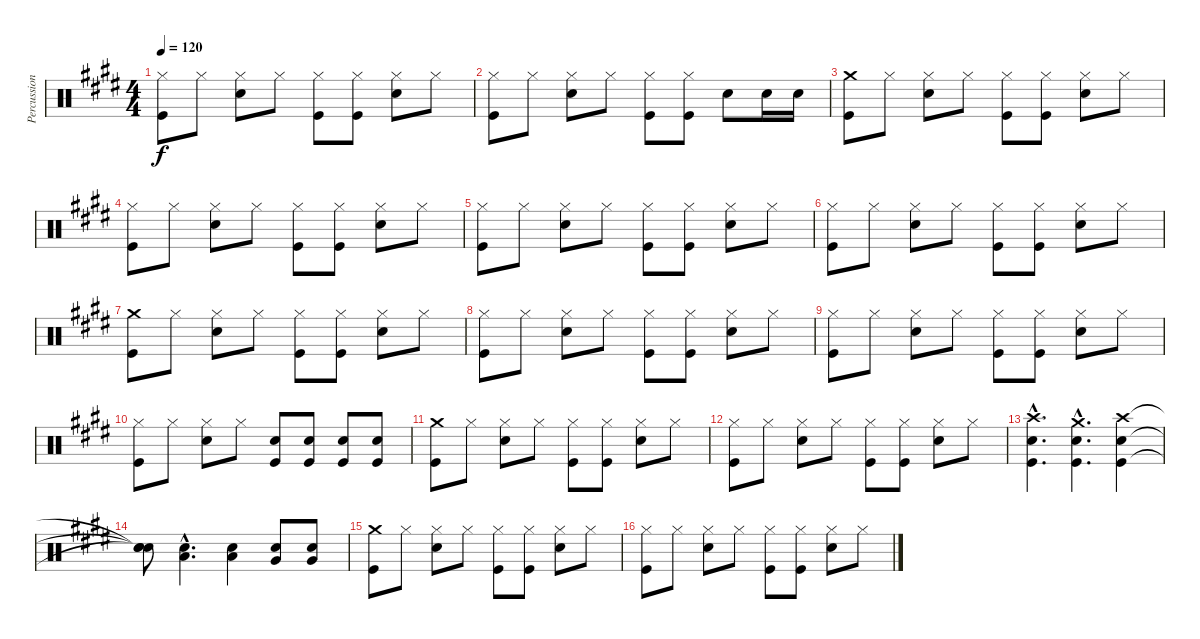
\track ("Percussion" "Percussion") {instrument percussion}
\staff {score}
\articulation defaults
\ts (4 4)
\tempo 120
\clef neutral
\ks e
("Hi-Hat (closed)" "Kick (hit)").8{dy f} "Hi-Hat (closed)".8 ("Hi-Hat (closed)" "Snare (hit) 2").8 "Hi-Hat (closed)".8 ("Hi-Hat (closed)" "Kick (hit)").8 ("Hi-Hat (closed)" "Kick (hit)").8 ("Hi-Hat (closed)" "Snare (hit) 2").8 "Hi-Hat (closed)".8 |
("Hi-Hat (closed)" "Kick (hit)").8 "Hi-Hat (closed)".8 ("Hi-Hat (closed)" "Snare (hit) 2").8 "Hi-Hat (closed)".8 ("Hi-Hat (closed)" "Kick (hit)").8 ("Hi-Hat (closed)" "Kick (hit)").8 "Snare (hit) 2".8 "Snare (hit) 2".16 "Snare (hit) 2".16 |
("Crash medium (hit)" "Kick (hit)").8 "Hi-Hat (closed)".8 ("Hi-Hat (closed)" "Snare (hit) 2").8 "Hi-Hat (closed)".8 ("Hi-Hat (closed)" "Kick (hit)").8 ("Hi-Hat (closed)" "Kick (hit)").8 ("Hi-Hat (closed)" "Snare (hit) 2").8 "Hi-Hat (closed)".8 |
("Hi-Hat (closed)" "Kick (hit)").8 "Hi-Hat (closed)".8 ("Hi-Hat (closed)" "Snare (hit) 2").8 "Hi-Hat (closed)".8 ("Hi-Hat (closed)" "Kick (hit)").8 ("Hi-Hat (closed)" "Kick (hit)").8 ("Hi-Hat (closed)" "Snare (hit) 2").8 "Hi-Hat (closed)".8 |
("Hi-Hat (closed)" "Kick (hit)").8 "Hi-Hat (closed)".8 ("Hi-Hat (closed)" "Snare (hit) 2").8 "Hi-Hat (closed)".8 ("Hi-Hat (closed)" "Kick (hit)").8 ("Hi-Hat (closed)" "Kick (hit)").8 ("Hi-Hat (closed)" "Snare (hit) 2").8 "Hi-Hat (closed)".8 |
("Hi-Hat (closed)" "Kick (hit)").8 "Hi-Hat (closed)".8 ("Hi-Hat (closed)" "Snare (hit) 2").8 "Hi-Hat (closed)".8 ("Hi-Hat (closed)" "Kick (hit)").8 ("Hi-Hat (closed)" "Kick (hit)").8 ("Hi-Hat (closed)" "Snare (hit) 2").8 "Hi-Hat (closed)".8 |
("Crash medium (hit)" "Kick (hit)").8 "Hi-Hat (closed)".8 ("Hi-Hat (closed)" "Snare (hit) 2").8 "Hi-Hat (closed)".8 ("Hi-Hat (closed)" "Kick (hit)").8 ("Hi-Hat (closed)" "Kick (hit)").8 ("Hi-Hat (closed)" "Snare (hit) 2").8 "Hi-Hat (closed)".8 |
("Hi-Hat (closed)" "Kick (hit)").8 "Hi-Hat (closed)".8 ("Hi-Hat (closed)" "Snare (hit) 2").8 "Hi-Hat (closed)".8 ("Hi-Hat (closed)" "Kick (hit)").8 ("Hi-Hat (closed)" "Kick (hit)").8 ("Hi-Hat (closed)" "Snare (hit) 2").8 "Hi-Hat (closed)".8 |
("Hi-Hat (closed)" "Kick (hit)").8 "Hi-Hat (closed)".8 ("Hi-Hat (closed)" "Snare (hit) 2").8 "Hi-Hat (closed)".8 ("Hi-Hat (closed)" "Kick (hit)").8 ("Hi-Hat (closed)" "Kick (hit)").8 ("Hi-Hat (closed)" "Snare (hit) 2").8 "Hi-Hat (closed)".8 |
("Hi-Hat (closed)" "Kick (hit)").8 "Hi-Hat (closed)".8 ("Hi-Hat (closed)" "Snare (hit) 2").8 "Hi-Hat (closed)".8 ("Snare (hit) 2" "Kick (hit)").8 ("Snare (hit) 2" "Kick (hit)").8 ("Snare (hit) 2" "Kick (hit)").8 ("Snare (hit) 2" "Kick (hit)").8 |
("Crash medium (hit)" "Kick (hit)").8 "Hi-Hat (closed)".8 ("Hi-Hat (closed)" "Snare (hit) 2").8 "Hi-Hat (closed)".8 ("Hi-Hat (closed)" "Kick (hit)").8 ("Hi-Hat (closed)" "Kick (hit)").8 ("Hi-Hat (closed)" "Snare (hit) 2").8 "Hi-Hat (closed)".8 |
("Hi-Hat (closed)" "Kick (hit)").8 "Hi-Hat (closed)".8 ("Hi-Hat (closed)" "Snare (hit) 2").8 "Hi-Hat (closed)".8 ("Hi-Hat (closed)" "Kick (hit)").8 ("Hi-Hat (closed)" "Kick (hit)").8 ("Hi-Hat (closed)" "Snare (hit) 2").8 "Hi-Hat (closed)".8 |
("Crash high (hit)"{hac} "Snare (hit) 2"{hac} "Kick (hit)"{hac}).4{d} ("Crash medium (hit)"{hac} "Snare (hit) 2"{hac} "Kick (hit)"{hac}).4{d} ("Crash high (hit)" "Snare (hit) 2" "Kick (hit)").4 |
("Snare (hit)"{t} "Snare (hit)"{t} "Snare (hit)"{t}).8 ("Low Tom (hit)"{hac} "Snare (hit) 2"{hac}).4{d} ("Low Tom (hit)" "Snare (hit) 2").4 ("Very Low Tom (hit)" "Snare (hit) 2").8 ("Very Low Tom (hit)" "Snare (hit) 2").8 |
("Crash medium (hit)" "Kick (hit)").8 "Hi-Hat (closed)".8 ("Hi-Hat (closed)" "Snare (hit) 2").8 "Hi-Hat (closed)".8 ("Hi-Hat (closed)" "Kick (hit)").8 ("Hi-Hat (closed)" "Kick (hit)").8 ("Hi-Hat (closed)" "Snare (hit) 2").8 "Hi-Hat (closed)".8 |
("Hi-Hat (closed)" "Kick (hit)").8 "Hi-Hat (closed)".8 ("Hi-Hat (closed)" "Snare (hit) 2").8 "Hi-Hat (closed)".8 ("Hi-Hat (closed)" "Kick (hit)").8 ("Hi-Hat (closed)" "Kick (hit)").8 ("Hi-Hat (closed)" "Snare (hit) 2").8 "Hi-Hat (closed)".8
